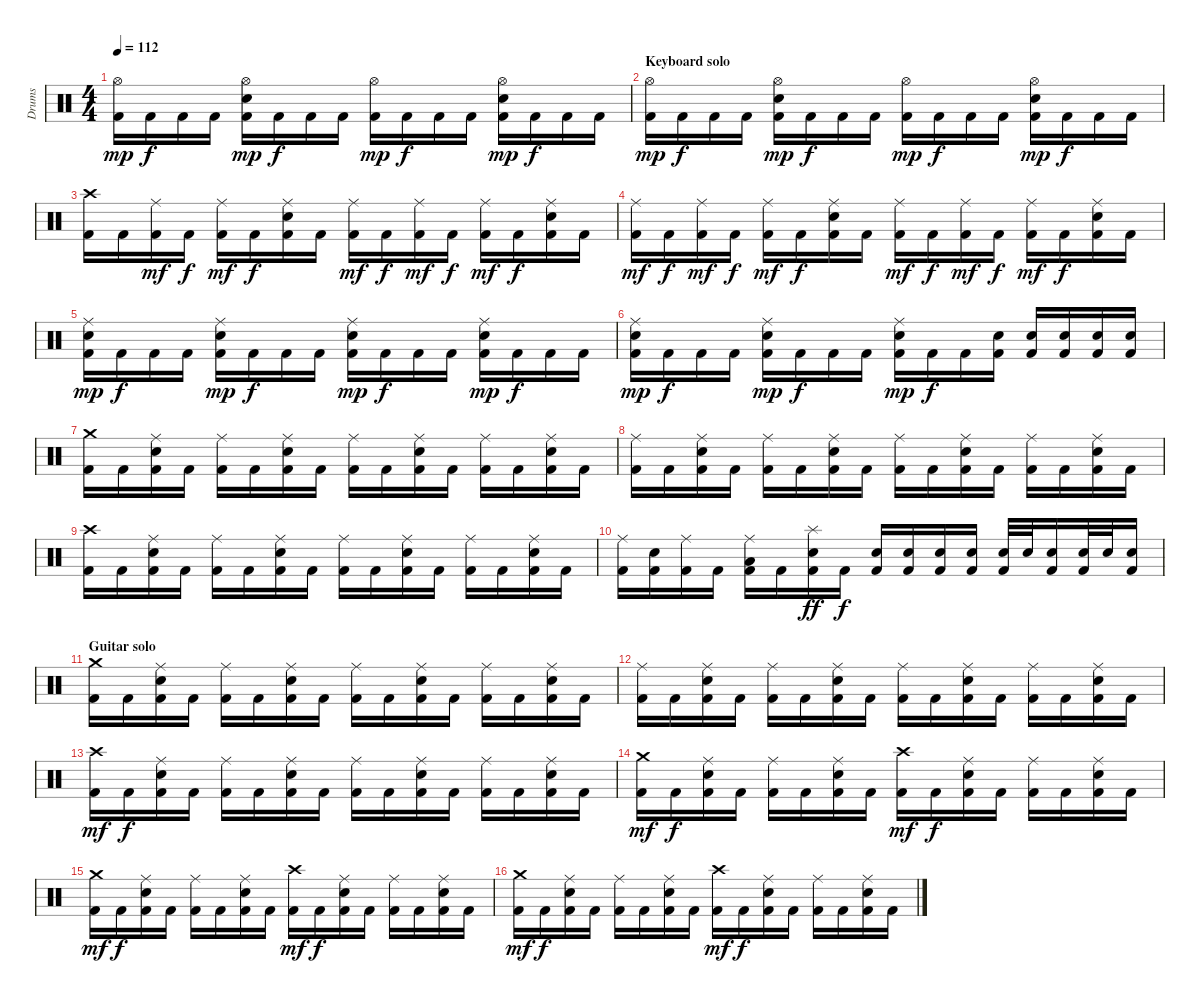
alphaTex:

\track ("Drums" "Drums") {instrument percussion}
\staff {score}
\articulation defaults
\ts (4 4)
\tempo 112
\clef neutral
\ks c
("Hi-Hat (open)" "Kick (hit) 2").16{dy mp} "Kick (hit) 2".16{dy f} "Kick (hit) 2".16 "Kick (hit) 2".16 ("Hi-Hat (open)" "Electric Snare (hit)" "Kick (hit) 2").16{dy mp} "Kick (hit) 2".16{dy f} "Kick (hit) 2".16 "Kick (hit) 2".16 ("Hi-Hat (open)" "Kick (hit) 2").16{dy mp} "Kick (hit) 2".16{dy f} "Kick (hit) 2".16 "Kick (hit) 2".16 ("Hi-Hat (open)" "Electric Snare (hit)" "Kick (hit) 2").16{dy mp} "Kick (hit) 2".16{dy f} "Kick (hit) 2".16 "Kick (hit) 2".16 |
\section ("" "Keyboard solo")
("Hi-Hat (open)" "Kick (hit) 2").16{dy mp} "Kick (hit) 2".16{dy f} "Kick (hit) 2".16 "Kick (hit) 2".16 ("Hi-Hat (open)" "Electric Snare (hit)" "Kick (hit) 2").16{dy mp} "Kick (hit) 2".16{dy f} "Kick (hit) 2".16 "Kick (hit) 2".16 ("Hi-Hat (open)" "Kick (hit) 2").16{dy mp} "Kick (hit) 2".16{dy f} "Kick (hit) 2".16 "Kick (hit) 2".16 ("Hi-Hat (open)" "Electric Snare (hit)" "Kick (hit) 2").16{dy mp} "Kick (hit) 2".16{dy f} "Kick (hit) 2".16 "Kick (hit) 2".16 |
("Crash high (hit)" "Kick (hit) 2").16 "Kick (hit) 2".16 ("Ride (middle)" "Kick (hit) 2").16{dy mf} "Kick (hit) 2".16{dy f} ("Ride (middle)" "Kick (hit) 2").16{dy mf} "Kick (hit) 2".16{dy f} ("Ride (middle)" "Electric Snare (hit)" "Kick (hit) 2").16 "Kick (hit) 2".16 ("Ride (middle)" "Kick (hit) 2").16{dy mf} "Kick (hit) 2".16{dy f} ("Ride (middle)" "Kick (hit) 2").16{dy mf} "Kick (hit) 2".16{dy f} ("Ride (middle)" "Kick (hit) 2").16{dy mf} "Kick (hit) 2".16{dy f} ("Ride (middle)" "Electric Snare (hit)" "Kick (hit) 2").16 "Kick (hit) 2".16 |
("Ride (middle)" "Kick (hit) 2").16{dy mf} "Kick (hit) 2".16{dy f} ("Ride (middle)" "Kick (hit) 2").16{dy mf} "Kick (hit) 2".16{dy f} ("Ride (middle)" "Kick (hit) 2").16{dy mf} "Kick (hit) 2".16{dy f} ("Ride (middle)" "Electric Snare (hit)" "Kick (hit) 2").16 "Kick (hit) 2".16 ("Ride (middle)" "Kick (hit) 2").16{dy mf} "Kick (hit) 2".16{dy f} ("Ride (middle)" "Kick (hit) 2").16{dy mf} "Kick (hit) 2".16{dy f} ("Ride (middle)" "Kick (hit) 2").16{dy mf} "Kick (hit) 2".16{dy f} ("Ride (middle)" "Electric Snare (hit)" "Kick (hit) 2").16 "Kick (hit) 2".16 |
("Ride (middle)" "Electric Snare (hit)" "Kick (hit) 2").16{dy mp} "Kick (hit) 2".16{dy f} "Kick (hit) 2".16 "Kick (hit) 2".16 ("Ride (middle)" "Electric Snare (hit)" "Kick (hit) 2").16{dy mp} "Kick (hit) 2".16{dy f} "Kick (hit) 2".16 "Kick (hit) 2".16 ("Ride (middle)" "Electric Snare (hit)" "Kick (hit) 2").16{dy mp} "Kick (hit) 2".16{dy f} "Kick (hit) 2".16 "Kick (hit) 2".16 ("Ride (middle)" "Electric Snare (hit)" "Kick (hit) 2").16{dy mp} "Kick (hit) 2".16{dy f} "Kick (hit) 2".16 "Kick (hit) 2".16 |
("Ride (middle)" "Electric Snare (hit)" "Kick (hit) 2").16{dy mp} "Kick (hit) 2".16{dy f} "Kick (hit) 2".16 "Kick (hit) 2".16 ("Ride (middle)" "Electric Snare (hit)" "Kick (hit) 2").16{dy mp} "Kick (hit) 2".16{dy f} "Kick (hit) 2".16 "Kick (hit) 2".16 ("Ride (middle)" "Electric Snare (hit)" "Kick (hit) 2").16{dy mp} "Kick (hit) 2".16{dy f} "Kick (hit) 2".16 ("Electric Snare (hit)" "Kick (hit) 2").16 ("Electric Snare (hit)" "Kick (hit) 2").16 ("Electric Snare (hit)" "Kick (hit) 2").16 ("Electric Snare (hit)" "Kick (hit) 2").16 ("Electric Snare (hit)" "Kick (hit) 2").16 |
("Crash medium (hit)" "Kick (hit) 2").16 "Kick (hit) 2".16 ("Ride (middle)" "Electric Snare (hit)" "Kick (hit) 2").16 "Kick (hit) 2".16 ("Ride (middle)" "Kick (hit) 2").16 "Kick (hit) 2".16 ("Ride (middle)" "Electric Snare (hit)" "Kick (hit) 2").16 "Kick (hit) 2".16 ("Ride (middle)" "Kick (hit) 2").16 "Kick (hit) 2".16 ("Ride (middle)" "Electric Snare (hit)" "Kick (hit) 2").16 "Kick (hit) 2".16 ("Ride (middle)" "Kick (hit) 2").16 "Kick (hit) 2".16 ("Ride (middle)" "Electric Snare (hit)" "Kick (hit) 2").16 "Kick (hit) 2".16 |
("Ride (middle)" "Kick (hit) 2").16 "Kick (hit) 2".16 ("Ride (middle)" "Electric Snare (hit)" "Kick (hit) 2").16 "Kick (hit) 2".16 ("Ride (middle)" "Kick (hit) 2").16 "Kick (hit) 2".16 ("Ride (middle)" "Electric Snare (hit)" "Kick (hit) 2").16 "Kick (hit) 2".16 ("Ride (middle)" "Kick (hit) 2").16 "Kick (hit) 2".16 ("Ride (middle)" "Electric Snare (hit)" "Kick (hit) 2").16 "Kick (hit) 2".16 ("Ride (middle)" "Kick (hit) 2").16 "Kick (hit) 2".16 ("Ride (middle)" "Electric Snare (hit)" "Kick (hit) 2").16 "Kick (hit) 2".16 |
("Crash high (hit)" "Kick (hit) 2").16 "Kick (hit) 2".16 ("Ride (middle)" "Electric Snare (hit)" "Kick (hit) 2").16 "Kick (hit) 2".16 ("Ride (middle)" "Kick (hit) 2").16 "Kick (hit) 2".16 ("Ride (middle)" "Electric Snare (hit)" "Kick (hit) 2").16 "Kick (hit) 2".16 ("Ride (middle)" "Kick (hit) 2").16 "Kick (hit) 2".16 ("Ride (middle)" "Electric Snare (hit)" "Kick (hit) 2").16 "Kick (hit) 2".16 ("Ride (middle)" "Kick (hit) 2").16 "Kick (hit) 2".16 ("Ride (middle)" "Electric Snare (hit)" "Kick (hit) 2").16 "Kick (hit) 2".16 |
("Ride (middle)" "Kick (hit) 2").16 ("Electric Snare (hit)" "Kick (hit) 2").16 ("Ride (middle)" "Kick (hit) 2").16 "Kick (hit) 2".16 ("Ride (middle)" "Low Tom (hit)" "Kick (hit) 2").16 "Kick (hit) 2".16 ("Splash (hit)" "Electric Snare (hit)" "Kick (hit) 2").16{dy ff} "Kick (hit) 2".16{dy f} ("Electric Snare (hit)" "Kick (hit) 2").16 ("Electric Snare (hit)" "Kick (hit) 2").16 ("Electric Snare (hit)" "Kick (hit) 2").16 ("Electric Snare (hit)" "Kick (hit) 2").16 ("Electric Snare (hit)" "Kick (hit) 2").32 "Electric Snare (hit)".32 ("Electric Snare (hit)" "Kick (hit) 2").16 ("Electric Snare (hit)" "Kick (hit) 2").32 "Electric Snare (hit)".32 ("Electric Snare (hit)" "Kick (hit) 2").16 |
\section ("" "Guitar solo")
("Crash medium (hit)" "Kick (hit) 2").16 "Kick (hit) 2".16 ("Ride (middle)" "Electric Snare (hit)" "Kick (hit) 2").16 "Kick (hit) 2".16 ("Ride (middle)" "Kick (hit) 2").16 "Kick (hit) 2".16 ("Ride (middle)" "Electric Snare (hit)" "Kick (hit) 2").16 "Kick (hit) 2".16 ("Ride (middle)" "Kick (hit) 2").16 "Kick (hit) 2".16 ("Ride (middle)" "Electric Snare (hit)" "Kick (hit) 2").16 "Kick (hit) 2".16 ("Ride (middle)" "Kick (hit) 2").16 "Kick (hit) 2".16 ("Ride (middle)" "Electric Snare (hit)" "Kick (hit) 2").16 "Kick (hit) 2".16 |
("Ride (middle)" "Kick (hit) 2").16 "Kick (hit) 2".16 ("Ride (middle)" "Electric Snare (hit)" "Kick (hit) 2").16 "Kick (hit) 2".16 ("Ride (middle)" "Kick (hit) 2").16 "Kick (hit) 2".16 ("Ride (middle)" "Electric Snare (hit)" "Kick (hit) 2").16 "Kick (hit) 2".16 ("Ride (middle)" "Kick (hit) 2").16 "Kick (hit) 2".16 ("Ride (middle)" "Electric Snare (hit)" "Kick (hit) 2").16 "Kick (hit) 2".16 ("Ride (middle)" "Kick (hit) 2").16 "Kick (hit) 2".16 ("Ride (middle)" "Electric Snare (hit)" "Kick (hit) 2").16 "Kick (hit) 2".16 |
("Crash high (hit)" "Kick (hit) 2").16{dy mf} "Kick (hit) 2".16{dy f} ("Ride (middle)" "Electric Snare (hit)" "Kick (hit) 2").16 "Kick (hit) 2".16 ("Ride (middle)" "Kick (hit) 2").16 "Kick (hit) 2".16 ("Ride (middle)" "Electric Snare (hit)" "Kick (hit) 2").16 "Kick (hit) 2".16 ("Ride (middle)" "Kick (hit) 2").16 "Kick (hit) 2".16 ("Ride (middle)" "Electric Snare (hit)" "Kick (hit) 2").16 "Kick (hit) 2".16 ("Ride (middle)" "Kick (hit) 2").16 "Kick (hit) 2".16 ("Ride (middle)" "Electric Snare (hit)" "Kick (hit) 2").16 "Kick (hit) 2".16 |
("Crash medium (hit)" "Kick (hit) 2").16{dy mf} "Kick (hit) 2".16{dy f} ("Ride (middle)" "Electric Snare (hit)" "Kick (hit) 2").16 "Kick (hit) 2".16 ("Ride (middle)" "Kick (hit) 2").16 "Kick (hit) 2".16 ("Ride (middle)" "Electric Snare (hit)" "Kick (hit) 2").16 "Kick (hit) 2".16 ("Crash high (hit)" "Kick (hit) 2").16{dy mf} "Kick (hit) 2".16{dy f} ("Ride (middle)" "Electric Snare (hit)" "Kick (hit) 2").16 "Kick (hit) 2".16 ("Ride (middle)" "Kick (hit) 2").16 "Kick (hit) 2".16 ("Ride (middle)" "Electric Snare (hit)" "Kick (hit) 2").16 "Kick (hit) 2".16 |
("Crash medium (hit)" "Kick (hit) 2").16{dy mf} "Kick (hit) 2".16{dy f} ("Ride (middle)" "Electric Snare (hit)" "Kick (hit) 2").16 "Kick (hit) 2".16 ("Ride (middle)" "Kick (hit) 2").16 "Kick (hit) 2".16 ("Ride (middle)" "Electric Snare (hit)" "Kick (hit) 2").16 "Kick (hit) 2".16 ("Crash high (hit)" "Kick (hit) 2").16{dy mf} "Kick (hit) 2".16{dy f} ("Ride (middle)" "Electric Snare (hit)" "Kick (hit) 2").16 "Kick (hit) 2".16 ("Ride (middle)" "Kick (hit) 2").16 "Kick (hit) 2".16 ("Ride (middle)" "Electric Snare (hit)" "Kick (hit) 2").16 "Kick (hit) 2".16 |
("Crash medium (hit)" "Kick (hit) 2").16{dy mf} "Kick (hit) 2".16{dy f} ("Ride (middle)" "Electric Snare (hit)" "Kick (hit) 2").16 "Kick (hit) 2".16 ("Ride (middle)" "Kick (hit) 2").16 "Kick (hit) 2".16 ("Ride (middle)" "Electric Snare (hit)" "Kick (hit) 2").16 "Kick (hit) 2".16 ("Crash high (hit)" "Kick (hit) 2").16{dy mf} "Kick (hit) 2".16{dy f} ("Ride (middle)" "Electric Snare (hit)" "Kick (hit) 2").16 "Kick (hit) 2".16 ("Ride (middle)" "Kick (hit) 2").16 "Kick (hit) 2".16 ("Ride (middle)" "Electric Snare (hit)" "Kick (hit) 2").16 "Kick (hit) 2".16
